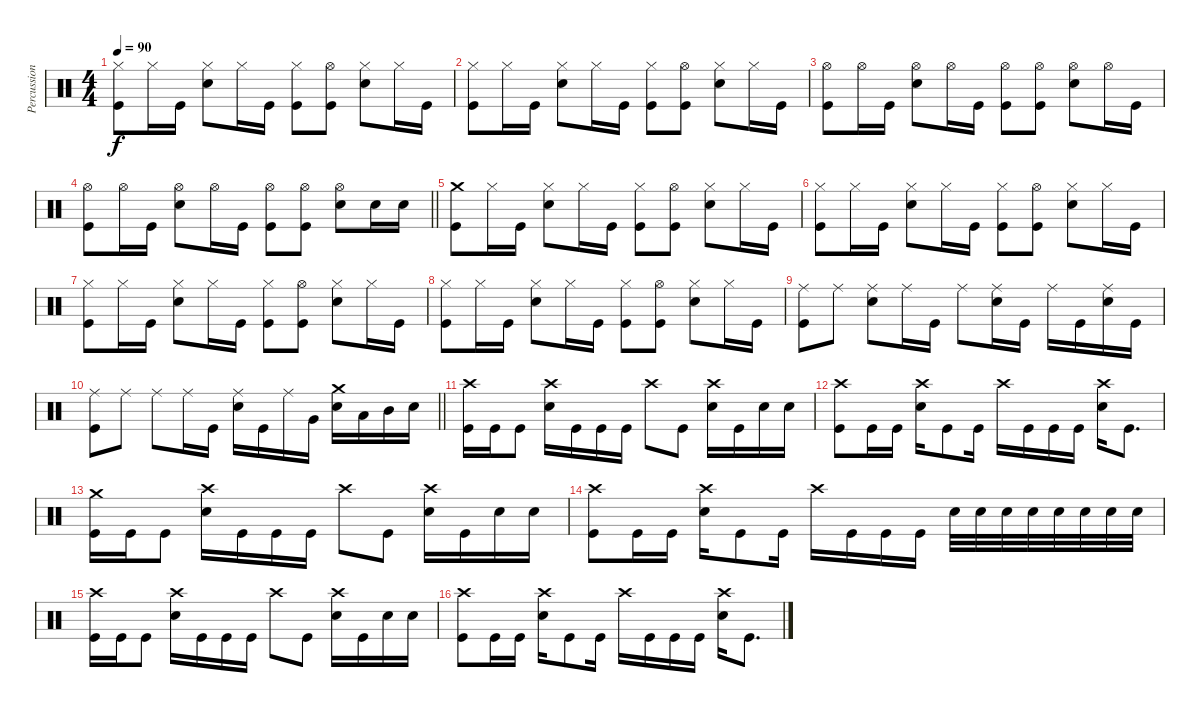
\track ("Percussion" "Percussion") {instrument percussion}
\staff {score}
\articulation defaults
\ts (4 4)
\tempo 90
\clef neutral
\ks c
("Hi-Hat (closed)" "Kick (hit)").8{dy f} "Hi-Hat (closed)".16 "Kick (hit)".16 ("Hi-Hat (closed)" "Electric Snare (hit)").8 "Hi-Hat (closed)".16 "Kick (hit)".16 ("Hi-Hat (closed)" "Kick (hit)").8 ("Hi-Hat (open)" "Kick (hit)").8 ("Hi-Hat (closed)" "Electric Snare (hit)").8 "Hi-Hat (closed)".16 "Kick (hit)".16 |
("Hi-Hat (closed)" "Kick (hit)").8 "Hi-Hat (closed)".16 "Kick (hit)".16 ("Hi-Hat (closed)" "Electric Snare (hit)").8 "Hi-Hat (closed)".16 "Kick (hit)".16 ("Hi-Hat (closed)" "Kick (hit)").8 ("Hi-Hat (open)" "Kick (hit)").8 ("Hi-Hat (closed)" "Electric Snare (hit)").8 "Hi-Hat (closed)".16 "Kick (hit)".16 |
("Hi-Hat (open)" "Kick (hit)").8 "Hi-Hat (open)".16 "Kick (hit)".16 ("Hi-Hat (open)" "Electric Snare (hit)").8 "Hi-Hat (open)".16 "Kick (hit)".16 ("Hi-Hat (open)" "Kick (hit)").8 ("Hi-Hat (open)" "Kick (hit)").8 ("Hi-Hat (open)" "Electric Snare (hit)").8 "Hi-Hat (open)".16 "Kick (hit)".16 |
\barLineRight lightlight
("Hi-Hat (open)" "Kick (hit)").8 "Hi-Hat (open)".16 "Kick (hit)".16 ("Hi-Hat (open)" "Electric Snare (hit)").8 "Hi-Hat (open)".16 "Kick (hit)".16 ("Hi-Hat (open)" "Kick (hit)").8 ("Hi-Hat (open)" "Kick (hit)").8 ("Hi-Hat (open)" "Electric Snare (hit)").8 "Electric Snare (hit)".16 "Electric Snare (hit)".16 |
("Crash medium (hit)" "Kick (hit)").8 "Hi-Hat (closed)".16 "Kick (hit)".16 ("Hi-Hat (closed)" "Electric Snare (hit)").8 "Hi-Hat (closed)".16 "Kick (hit)".16 ("Hi-Hat (closed)" "Kick (hit)").8 ("Hi-Hat (open)" "Kick (hit)").8 ("Hi-Hat (closed)" "Electric Snare (hit)").8 "Hi-Hat (closed)".16 "Kick (hit)".16 |
("Hi-Hat (closed)" "Kick (hit)").8 "Hi-Hat (closed)".16 "Kick (hit)".16 ("Hi-Hat (closed)" "Electric Snare (hit)").8 "Hi-Hat (closed)".16 "Kick (hit)".16 ("Hi-Hat (closed)" "Kick (hit)").8 ("Hi-Hat (open)" "Kick (hit)").8 ("Hi-Hat (closed)" "Electric Snare (hit)").8 "Hi-Hat (closed)".16 "Kick (hit)".16 |
("Hi-Hat (closed)" "Kick (hit)").8 "Hi-Hat (closed)".16 "Kick (hit)".16 ("Hi-Hat (closed)" "Electric Snare (hit)").8 "Hi-Hat (closed)".16 "Kick (hit)".16 ("Hi-Hat (closed)" "Kick (hit)").8 ("Hi-Hat (open)" "Kick (hit)").8 ("Hi-Hat (closed)" "Electric Snare (hit)").8 "Hi-Hat (closed)".16 "Kick (hit)".16 |
("Hi-Hat (closed)" "Kick (hit)").8 "Hi-Hat (closed)".16 "Kick (hit)".16 ("Hi-Hat (closed)" "Electric Snare (hit)").8 "Hi-Hat (closed)".16 "Kick (hit)".16 ("Hi-Hat (closed)" "Kick (hit)").8 ("Hi-Hat (open)" "Kick (hit)").8 ("Hi-Hat (closed)" "Electric Snare (hit)").8 "Hi-Hat (closed)".16 "Kick (hit)".16 |
("Ride (middle)" "Kick (hit)").8 "Ride (middle)".8 ("Ride (middle)" "Electric Snare (hit)").8 "Ride (middle)".16 "Kick (hit)".16 "Ride (middle)".8 ("Ride (middle)" "Electric Snare (hit)").16 "Kick (hit)".16 "Ride (middle)".16 "Kick (hit)".16 ("Ride (middle)" "Electric Snare (hit)").16 "Kick (hit)".16 |
\barLineRight lightlight
("Ride (middle)" "Kick (hit)").8 "Ride (middle)".8 "Ride (middle)".8 "Ride (middle)".16 "Kick (hit)".16 ("Ride (middle)" "Electric Snare (hit)").16 "Kick (hit)".16 "Ride (middle)".16 "Very Low Tom (hit)".16 ("Crash medium (hit)" "Electric Snare (hit)").16 "Low Tom (hit)".16 "Mid Tom (hit)".16 "Electric Snare (hit)".16 |
("Crash high (hit)" "Kick (hit)").16 "Kick (hit)".16 "Kick (hit)".8 ("Crash high (hit)" "Electric Snare (hit)").16 "Kick (hit)".16 "Kick (hit)".16 "Kick (hit)".16 "Crash high (hit)".8 "Kick (hit)".8 ("Crash high (hit)" "Electric Snare (hit)").16 "Kick (hit)".16 "Electric Snare (hit)".16 "Electric Snare (hit)".16 |
("Crash high (hit)" "Kick (hit)").8 "Kick (hit)".16 "Kick (hit)".16 ("Crash high (hit)" "Electric Snare (hit)").16 "Kick (hit)".8 "Kick (hit)".16 "Crash high (hit)".16 "Kick (hit)".16 "Kick (hit)".16 "Kick (hit)".16 ("Crash high (hit)" "Electric Snare (hit)").16 "Kick (hit)".8{d} |
("Crash medium (hit)" "Kick (hit)").16 "Kick (hit)".16 "Kick (hit)".8 ("Crash high (hit)" "Electric Snare (hit)").16 "Kick (hit)".16 "Kick (hit)".16 "Kick (hit)".16 "Crash high (hit)".8 "Kick (hit)".8 ("Crash high (hit)" "Electric Snare (hit)").16 "Kick (hit)".16 "Electric Snare (hit)".16 "Electric Snare (hit)".16 |
("Crash high (hit)" "Kick (hit)").8 "Kick (hit)".16 "Kick (hit)".16 ("Crash high (hit)" "Electric Snare (hit)").16 "Kick (hit)".8 "Kick (hit)".16 "Crash high (hit)".16 "Kick (hit)".16 "Kick (hit)".16 "Kick (hit)".16 "Snare (hit) 2".32 "Snare (hit) 2".32 "Snare (hit) 2".32 "Snare (hit) 2".32 "Snare (hit) 2".32 "Snare (hit) 2".32 "Snare (hit) 2".32 "Snare (hit) 2".32 |
("Crash high (hit)" "Kick (hit)").16 "Kick (hit)".16 "Kick (hit)".8 ("Crash high (hit)" "Electric Snare (hit)").16 "Kick (hit)".16 "Kick (hit)".16 "Kick (hit)".16 "Crash high (hit)".8 "Kick (hit)".8 ("Crash high (hit)" "Electric Snare (hit)").16 "Kick (hit)".16 "Electric Snare (hit)".16 "Electric Snare (hit)".16 |
("Crash high (hit)" "Kick (hit)").8 "Kick (hit)".16 "Kick (hit)".16 ("Crash high (hit)" "Electric Snare (hit)").16 "Kick (hit)".8 "Kick (hit)".16 "Crash high (hit)".16 "Kick (hit)".16 "Kick (hit)".16 "Kick (hit)".16 ("Crash high (hit)" "Electric Snare (hit)").16 "Kick (hit)".8{d}
